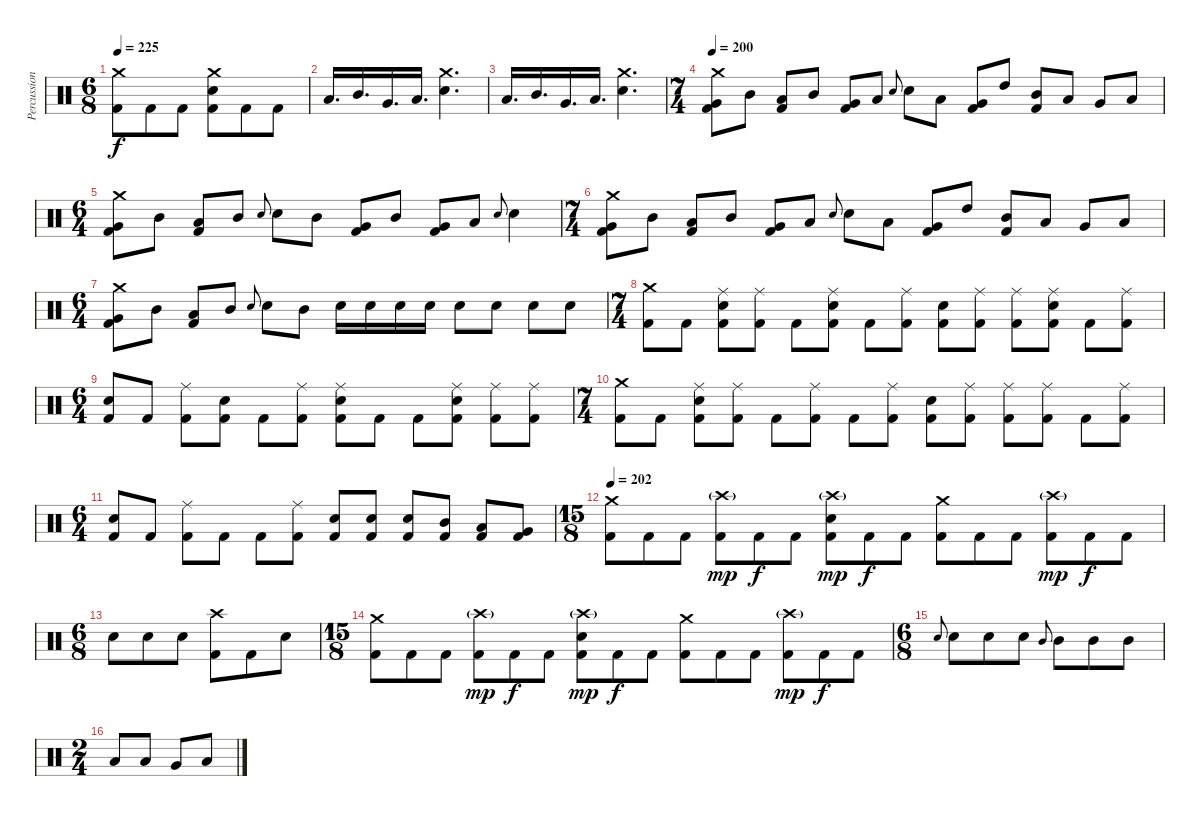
\track ("Percussion" "Percussion") {instrument percussion}
\staff {score}
\articulation defaults
\ts (6 8)
\tempo 225
\clef neutral
\ks c
("Crash medium (hit)" "Kick (hit) 2").8{dy f} "Kick (hit) 2".8 "Kick (hit) 2".8 ("Crash medium (hit)" "Electric Snare (hit)" "Kick (hit) 2").8 "Kick (hit) 2".8 "Kick (hit) 2".8 |
"Low Tom (hit)".16{d} "Mid Tom (hit)".16{d} "Very Low Tom (hit)".16{d} "Low Tom (hit)".16{d} ("Crash medium (hit)" "Electric Snare (hit)").4{d} |
"Low Tom (hit)".16{d} "Mid Tom (hit)".16{d} "Very Low Tom (hit)".16{d} "Low Tom (hit)".16{d} ("Crash medium (hit)" "Electric Snare (hit)").4{d} |
\ts (7 4)
\tempo 200
("Crash medium (hit)" "Very Low Tom (hit)" "Kick (hit) 2").8 "Mid Tom (hit)".8 ("Low Tom (hit)" "Kick (hit) 2").8 "Mid Tom (hit)".8 ("Very Low Tom (hit)" "Kick (hit) 2").8 "Low Tom (hit)".8 "Electric Snare (hit)".8{gr onbeat} "Electric Snare (hit)".8 "Low Tom (hit)".8 ("Very Low Tom (hit)" "Kick (hit) 2").8 "High Tom (hit)".8 ("Mid Tom (hit)" "Kick (hit) 2").8 "Low Tom (hit)".8 "Very Low Tom (hit)".8 "Low Floor Tom (hit)".8 |
\ts (6 4)
("Crash medium (hit)" "Very Low Tom (hit)" "Kick (hit) 2").8 "Mid Tom (hit)".8 ("Low Tom (hit)" "Kick (hit) 2").8 "Mid Tom (hit)".8 "Electric Snare (hit)".8{gr onbeat} "Electric Snare (hit)".8 "Mid Tom (hit)".8 ("Very Low Tom (hit)" "Kick (hit) 2").8 "Mid Tom (hit)".8 ("Very Low Tom (hit)" "Kick (hit) 2").8 "Low Tom (hit)".8 "Electric Snare (hit)".8{gr onbeat} "Electric Snare (hit)".4 |
\ts (7 4)
("Crash medium (hit)" "Very Low Tom (hit)" "Kick (hit) 2").8 "Mid Tom (hit)".8 ("Low Tom (hit)" "Kick (hit) 2").8 "Mid Tom (hit)".8 ("Very Low Tom (hit)" "Kick (hit) 2").8 "Low Tom (hit)".8 "Electric Snare (hit)".8{gr onbeat} "Electric Snare (hit)".8 "Low Tom (hit)".8 ("Very Low Tom (hit)" "Kick (hit) 2").8 "High Tom (hit)".8 ("Mid Tom (hit)" "Kick (hit) 2").8 "Low Tom (hit)".8 "Very Low Tom (hit)".8 "Low Floor Tom (hit)".8 |
\ts (6 4)
("Crash medium (hit)" "Very Low Tom (hit)" "Kick (hit) 2").8 "Mid Tom (hit)".8 ("Low Tom (hit)" "Kick (hit) 2").8 "Mid Tom (hit)".8 "Electric Snare (hit)".8{gr onbeat} "Electric Snare (hit)".8 "Mid Tom (hit)".8 "Electric Snare (hit)".16 "Electric Snare (hit)".16 "Electric Snare (hit)".16 "Electric Snare (hit)".16 "Electric Snare (hit)".8 "Electric Snare (hit)".8 "Electric Snare (hit)".8 "Electric Snare (hit)".8 |
\ts (7 4)
("Crash medium (hit)" "Kick (hit) 2").8 "Kick (hit) 2".8 ("Ride (middle)" "Electric Snare (hit)" "Kick (hit) 2").8 ("Ride (middle)" "Kick (hit) 2").8 "Kick (hit) 2".8 ("Ride (middle)" "Electric Snare (hit)" "Kick (hit) 2").8 "Kick (hit) 2".8 ("Ride (middle)" "Kick (hit) 2").8 ("Electric Snare (hit)" "Kick (hit) 2").8 ("Ride (middle)" "Kick (hit) 2").8 ("Ride (middle)" "Kick (hit) 2").8 ("Ride (middle)" "Electric Snare (hit)" "Kick (hit) 2").8 "Kick (hit) 2".8 ("Ride (middle)" "Kick (hit) 2").8 |
\ts (6 4)
("Electric Snare (hit)" "Kick (hit) 2").8 "Kick (hit) 2".8 ("Ride (middle)" "Kick (hit) 2").8 ("Electric Snare (hit)" "Kick (hit) 2").8 "Kick (hit) 2".8 ("Ride (middle)" "Kick (hit) 2").8 ("Ride (middle)" "Electric Snare (hit)" "Kick (hit) 2").8 "Kick (hit) 2".8 "Kick (hit) 2".8 ("Ride (middle)" "Electric Snare (hit)" "Kick (hit) 2").8 ("Ride (middle)" "Kick (hit) 2").8 ("Ride (middle)" "Kick (hit) 2").8 |
\ts (7 4)
("Crash medium (hit)" "Kick (hit) 2").8 "Kick (hit) 2".8 ("Ride (middle)" "Electric Snare (hit)" "Kick (hit) 2").8 ("Ride (middle)" "Kick (hit) 2").8 "Kick (hit) 2".8 ("Ride (middle)" "Kick (hit) 2").8 "Kick (hit) 2".8 ("Ride (middle)" "Kick (hit) 2").8 ("Electric Snare (hit)" "Kick (hit) 2").8 ("Ride (middle)" "Kick (hit) 2").8 ("Ride (middle)" "Kick (hit) 2").8 ("Ride (middle)" "Kick (hit) 2").8 "Kick (hit) 2".8 ("Ride (middle)" "Kick (hit) 2").8 |
\ts (6 4)
("Electric Snare (hit)" "Kick (hit) 2").8 "Kick (hit) 2".8 ("Ride (middle)" "Kick (hit) 2").8 "Kick (hit) 2".8 "Kick (hit) 2".8 ("Ride (middle)" "Kick (hit) 2").8 ("Electric Snare (hit)" "Kick (hit) 2").8 ("Electric Snare (hit)" "Kick (hit) 2").8 ("Electric Snare (hit)" "Kick (hit) 2").8 ("Mid Tom (hit)" "Kick (hit) 2").8 ("Low Tom (hit)" "Kick (hit) 2").8 ("Very Low Tom (hit)" "Kick (hit) 2").8 |
\ts (15 8)
\tempo 202
("Crash medium (hit)" "Kick (hit) 2").8 "Kick (hit) 2".8 "Kick (hit) 2".8 ("Crash high (hit)"{g} "Kick (hit) 2").8{dy mp} "Kick (hit) 2".8{dy f} "Kick (hit) 2".8 ("Crash high (hit)"{g} "Electric Snare (hit)" "Kick (hit) 2").8{dy mp} "Kick (hit) 2".8{dy f} "Kick (hit) 2".8 ("Crash medium (hit)" "Kick (hit) 2").8 "Kick (hit) 2".8 "Kick (hit) 2".8 ("Crash high (hit)"{g} "Kick (hit) 2").8{dy mp} "Kick (hit) 2".8{dy f} "Kick (hit) 2".8 |
\ts (6 8)
"Electric Snare (hit)".8 "Electric Snare (hit)".8 "Electric Snare (hit)".8 ("Crash high (hit)" "Kick (hit) 2").8 "Kick (hit) 2".8 "Electric Snare (hit)".8 |
\ts (15 8)
("Crash medium (hit)" "Kick (hit) 2").8 "Kick (hit) 2".8 "Kick (hit) 2".8 ("Crash high (hit)"{g} "Kick (hit) 2").8{dy mp} "Kick (hit) 2".8{dy f} "Kick (hit) 2".8 ("Crash high (hit)"{g} "Electric Snare (hit)" "Kick (hit) 2").8{dy mp} "Kick (hit) 2".8{dy f} "Kick (hit) 2".8 ("Crash medium (hit)" "Kick (hit) 2").8 "Kick (hit) 2".8 "Kick (hit) 2".8 ("Crash high (hit)"{g} "Kick (hit) 2").8{dy mp} "Kick (hit) 2".8{dy f} "Kick (hit) 2".8 |
\ts (6 8)
"Electric Snare (hit)".8{gr onbeat} "Electric Snare (hit)".8 "Electric Snare (hit)".8 "Electric Snare (hit)".8 "Mid Tom (hit)".8{gr onbeat} "Mid Tom (hit)".8 "Mid Tom (hit)".8 "Mid Tom (hit)".8 |
\ts (2 4)
"Low Tom (hit)".8 "Low Floor Tom (hit)".8 "Very Low Tom (hit)".8 "Low Floor Tom (hit)".8
